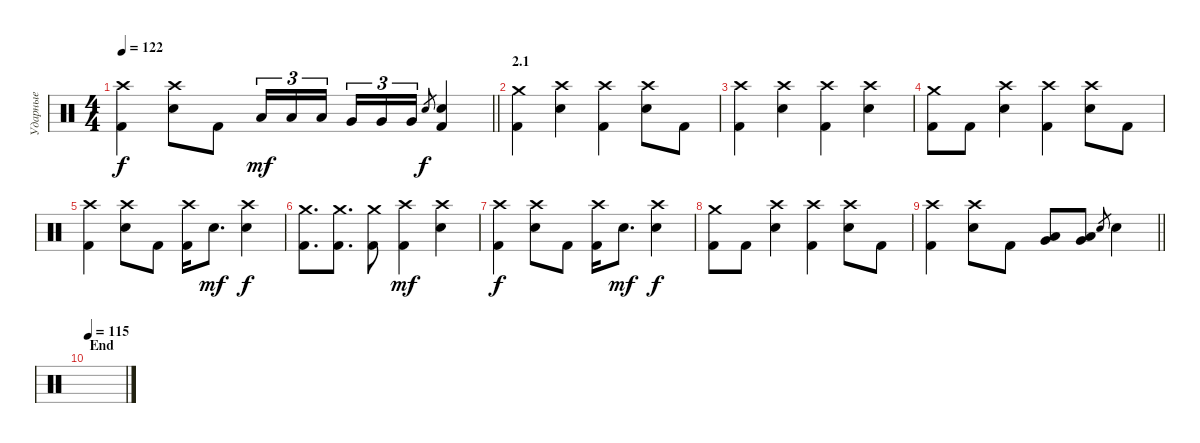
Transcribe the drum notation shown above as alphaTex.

\track ("Ударные" "Ударные") {instrument percussion}
\staff {score}
\articulation defaults
\ts (4 4)
\tempo 122
\clef neutral
\barLineRight lightlight
\ks c
("Crash high (hit)" "Kick (hit) 2").4{dy f} ("Electric Snare (hit)" "Crash high (hit)").8 "Kick (hit) 2".8 "Low Tom (hit)".16{tu (3 2) dy mf} "Low Tom (hit)".16{tu (3 2)} "Low Tom (hit)".16{tu (3 2) beam splitsecondary} "Very Low Tom (hit)".16{tu (3 2)} "Very Low Tom (hit)".16{tu (3 2)} "Very Low Tom (hit)".16{tu (3 2)} "Electric Snare (hit)".8{gr dy f} ("Electric Snare (hit)" "Kick (hit) 2").4 |
\section ("" "2.1")
("Crash medium (hit)" "Kick (hit) 2").4 ("Electric Snare (hit)" "Crash high (hit)").4 ("Kick (hit) 2" "Crash high (hit)").4 ("Electric Snare (hit)" "Crash high (hit)").8 "Kick (hit) 2".8 |
("Crash high (hit)" "Kick (hit) 2").4 ("Electric Snare (hit)" "Crash high (hit)").4 ("Kick (hit) 2" "Crash high (hit)").4 ("Electric Snare (hit)" "Crash high (hit)").4 |
("Crash medium (hit)" "Kick (hit) 2").8 "Kick (hit) 2".8 ("Electric Snare (hit)" "Crash high (hit)").4 ("Kick (hit) 2" "Crash high (hit)").4 ("Electric Snare (hit)" "Crash high (hit)").8 "Kick (hit) 2".8 |
("Crash high (hit)" "Kick (hit) 2").4 ("Electric Snare (hit)" "Crash high (hit)").8 "Kick (hit) 2".8 ("Kick (hit) 2" "Crash high (hit)").16 "Electric Snare (hit)".8{d dy mf} ("Electric Snare (hit)" "Crash high (hit)").4{dy f} |
("Crash medium (hit)" "Kick (hit) 2").8{d} ("Crash medium (hit)" "Kick (hit) 2").8{d} ("Crash medium (hit)" "Kick (hit) 2").8 ("Kick (hit) 2" "Crash high (hit)").4{dy mf} ("Crash high (hit)" "Electric Snare (hit)").4 |
("Crash high (hit)" "Kick (hit) 2").4{dy f} ("Electric Snare (hit)" "Crash high (hit)").8 "Kick (hit) 2".8 ("Kick (hit) 2" "Crash high (hit)").16 "Electric Snare (hit)".8{d dy mf} ("Electric Snare (hit)" "Crash high (hit)").4{dy f} |
("Crash medium (hit)" "Kick (hit) 2").8 "Kick (hit) 2".8 ("Electric Snare (hit)" "Crash high (hit)").4 ("Kick (hit) 2" "Crash high (hit)").4 ("Electric Snare (hit)" "Crash high (hit)").8 "Kick (hit) 2".8 |
\barLineRight lightlight
("Crash high (hit)" "Kick (hit) 2").4 ("Electric Snare (hit)" "Crash high (hit)").8 "Kick (hit) 2".8 ("Very Low Tom (hit)" "Low Tom (hit)").8 ("Very Low Tom (hit)" "Low Tom (hit)").8 "Electric Snare (hit)".8{gr} "Electric Snare (hit)".4 |
\section ("" "End")
\tempo 115
